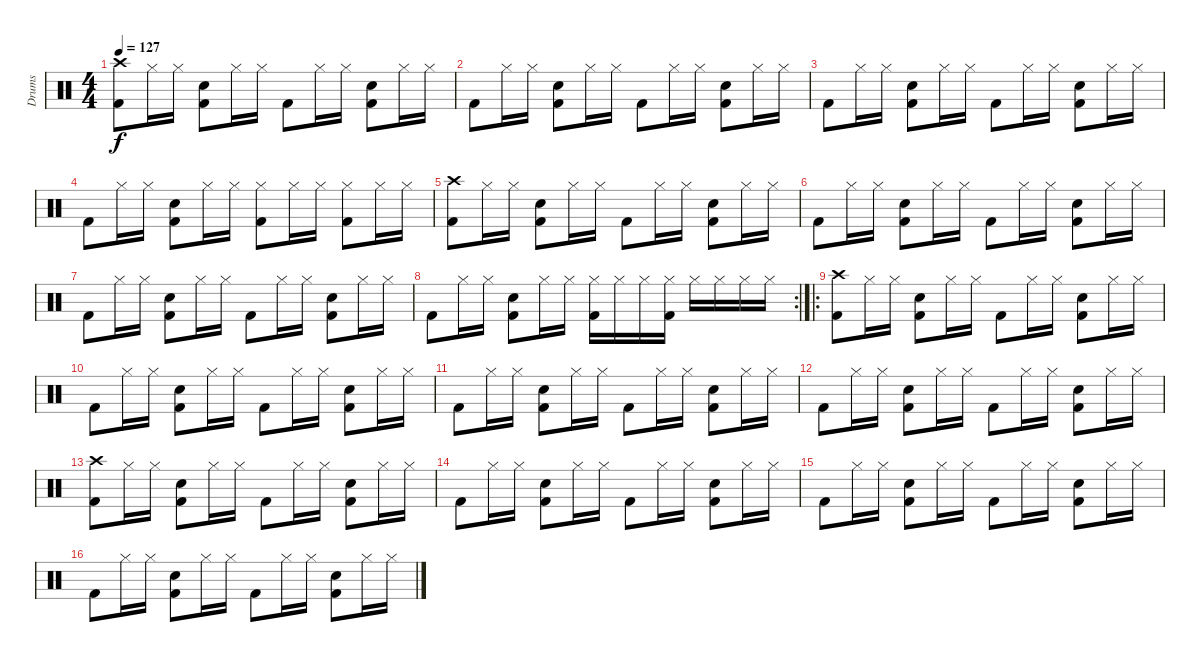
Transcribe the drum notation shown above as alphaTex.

\track ("Drums" "Drums") {instrument percussion}
\staff {score}
\articulation defaults
\ts (4 4)
\tempo 127
\clef neutral
\ks c
("Crash high (hit)" "Kick (hit) 2").8{dy f} "Hi-Hat (closed)".16 "Hi-Hat (closed)".16 ("Kick (hit) 2" "Snare (hit) 2").8 "Hi-Hat (closed)".16 "Hi-Hat (closed)".16 "Kick (hit) 2".8 "Hi-Hat (closed)".16 "Hi-Hat (closed)".16 ("Kick (hit) 2" "Snare (hit) 2").8 "Hi-Hat (closed)".16 "Hi-Hat (closed)".16 |
"Kick (hit) 2".8 "Hi-Hat (closed)".16 "Hi-Hat (closed)".16 ("Kick (hit) 2" "Snare (hit) 2").8 "Hi-Hat (closed)".16 "Hi-Hat (closed)".16 "Kick (hit) 2".8 "Hi-Hat (closed)".16 "Hi-Hat (closed)".16 ("Kick (hit) 2" "Snare (hit) 2").8 "Hi-Hat (closed)".16 "Hi-Hat (closed)".16 |
"Kick (hit) 2".8 "Hi-Hat (closed)".16 "Hi-Hat (closed)".16 ("Kick (hit) 2" "Snare (hit) 2").8 "Hi-Hat (closed)".16 "Hi-Hat (closed)".16 "Kick (hit) 2".8 "Hi-Hat (closed)".16 "Hi-Hat (closed)".16 ("Kick (hit) 2" "Snare (hit) 2").8 "Hi-Hat (closed)".16 "Hi-Hat (closed)".16 |
"Kick (hit) 2".8 "Hi-Hat (closed)".16 "Hi-Hat (closed)".16 ("Kick (hit) 2" "Snare (hit) 2").8 "Hi-Hat (closed)".16 "Hi-Hat (closed)".16 ("Kick (hit) 2" "Hi-Hat (closed)").8 "Hi-Hat (closed)".16 "Hi-Hat (closed)".16 ("Kick (hit) 2" "Hi-Hat (closed)").8 "Hi-Hat (closed)".16 "Hi-Hat (closed)".16 |
("Crash high (hit)" "Kick (hit) 2").8 "Hi-Hat (closed)".16 "Hi-Hat (closed)".16 ("Kick (hit) 2" "Snare (hit) 2").8 "Hi-Hat (closed)".16 "Hi-Hat (closed)".16 "Kick (hit) 2".8 "Hi-Hat (closed)".16 "Hi-Hat (closed)".16 ("Kick (hit) 2" "Snare (hit) 2").8 "Hi-Hat (closed)".16 "Hi-Hat (closed)".16 |
"Kick (hit) 2".8 "Hi-Hat (closed)".16 "Hi-Hat (closed)".16 ("Kick (hit) 2" "Snare (hit) 2").8 "Hi-Hat (closed)".16 "Hi-Hat (closed)".16 "Kick (hit) 2".8 "Hi-Hat (closed)".16 "Hi-Hat (closed)".16 ("Kick (hit) 2" "Snare (hit) 2").8 "Hi-Hat (closed)".16 "Hi-Hat (closed)".16 |
"Kick (hit) 2".8 "Hi-Hat (closed)".16 "Hi-Hat (closed)".16 ("Kick (hit) 2" "Snare (hit) 2").8 "Hi-Hat (closed)".16 "Hi-Hat (closed)".16 "Kick (hit) 2".8 "Hi-Hat (closed)".16 "Hi-Hat (closed)".16 ("Kick (hit) 2" "Snare (hit) 2").8 "Hi-Hat (closed)".16 "Hi-Hat (closed)".16 |
\rc 2 "Kick (hit) 2".8 "Hi-Hat (closed)".16 "Hi-Hat (closed)".16
("Kick (hit) 2" "Snare (hit) 2").8 "Hi-Hat (closed)".16 "Hi-Hat (closed)".16 ("Kick (hit) 2" "Hi-Hat (closed)").16 "Hi-Hat (closed)".16 "Hi-Hat (closed)".16 ("Kick (hit) 2" "Hi-Hat (closed)").16 "Hi-Hat (closed)".16 "Hi-Hat (closed)".16 "Hi-Hat (closed)".16 "Hi-Hat (closed)".16 |
\ro
("Crash high (hit)" "Kick (hit) 2").8 "Hi-Hat (closed)".16 "Hi-Hat (closed)".16 ("Kick (hit) 2" "Snare (hit) 2").8 "Hi-Hat (closed)".16 "Hi-Hat (closed)".16 "Kick (hit) 2".8 "Hi-Hat (closed)".16 "Hi-Hat (closed)".16 ("Kick (hit) 2" "Snare (hit) 2").8 "Hi-Hat (closed)".16 "Hi-Hat (closed)".16 |
"Kick (hit) 2".8 "Hi-Hat (closed)".16 "Hi-Hat (closed)".16 ("Kick (hit) 2" "Snare (hit) 2").8 "Hi-Hat (closed)".16 "Hi-Hat (closed)".16 "Kick (hit) 2".8 "Hi-Hat (closed)".16 "Hi-Hat (closed)".16 ("Kick (hit) 2" "Snare (hit) 2").8 "Hi-Hat (closed)".16 "Hi-Hat (closed)".16 |
"Kick (hit) 2".8 "Hi-Hat (closed)".16 "Hi-Hat (closed)".16 ("Kick (hit) 2" "Snare (hit) 2").8 "Hi-Hat (closed)".16 "Hi-Hat (closed)".16 "Kick (hit) 2".8 "Hi-Hat (closed)".16 "Hi-Hat (closed)".16 ("Kick (hit) 2" "Snare (hit) 2").8 "Hi-Hat (closed)".16 "Hi-Hat (closed)".16 |
"Kick (hit) 2".8 "Hi-Hat (closed)".16 "Hi-Hat (closed)".16 ("Kick (hit) 2" "Snare (hit) 2").8 "Hi-Hat (closed)".16 "Hi-Hat (closed)".16 "Kick (hit) 2".8 "Hi-Hat (closed)".16 "Hi-Hat (closed)".16 ("Kick (hit) 2" "Snare (hit) 2").8 "Hi-Hat (closed)".16 "Hi-Hat (closed)".16 |
("Crash high (hit)" "Kick (hit) 2").8 "Hi-Hat (closed)".16 "Hi-Hat (closed)".16 ("Kick (hit) 2" "Snare (hit) 2").8 "Hi-Hat (closed)".16 "Hi-Hat (closed)".16 "Kick (hit) 2".8 "Hi-Hat (closed)".16 "Hi-Hat (closed)".16 ("Kick (hit) 2" "Snare (hit) 2").8 "Hi-Hat (closed)".16 "Hi-Hat (closed)".16 |
"Kick (hit) 2".8 "Hi-Hat (closed)".16 "Hi-Hat (closed)".16 ("Kick (hit) 2" "Snare (hit) 2").8 "Hi-Hat (closed)".16 "Hi-Hat (closed)".16 "Kick (hit) 2".8 "Hi-Hat (closed)".16 "Hi-Hat (closed)".16 ("Kick (hit) 2" "Snare (hit) 2").8 "Hi-Hat (closed)".16 "Hi-Hat (closed)".16 |
"Kick (hit) 2".8 "Hi-Hat (closed)".16 "Hi-Hat (closed)".16 ("Kick (hit) 2" "Snare (hit) 2").8 "Hi-Hat (closed)".16 "Hi-Hat (closed)".16 "Kick (hit) 2".8 "Hi-Hat (closed)".16 "Hi-Hat (closed)".16 ("Kick (hit) 2" "Snare (hit) 2").8 "Hi-Hat (closed)".16 "Hi-Hat (closed)".16 |
"Kick (hit) 2".8 "Hi-Hat (closed)".16 "Hi-Hat (closed)".16 ("Kick (hit) 2" "Snare (hit) 2").8 "Hi-Hat (closed)".16 "Hi-Hat (closed)".16 "Kick (hit) 2".8 "Hi-Hat (closed)".16 "Hi-Hat (closed)".16 ("Kick (hit) 2" "Snare (hit) 2").8 "Hi-Hat (closed)".16 "Hi-Hat (closed)".16
